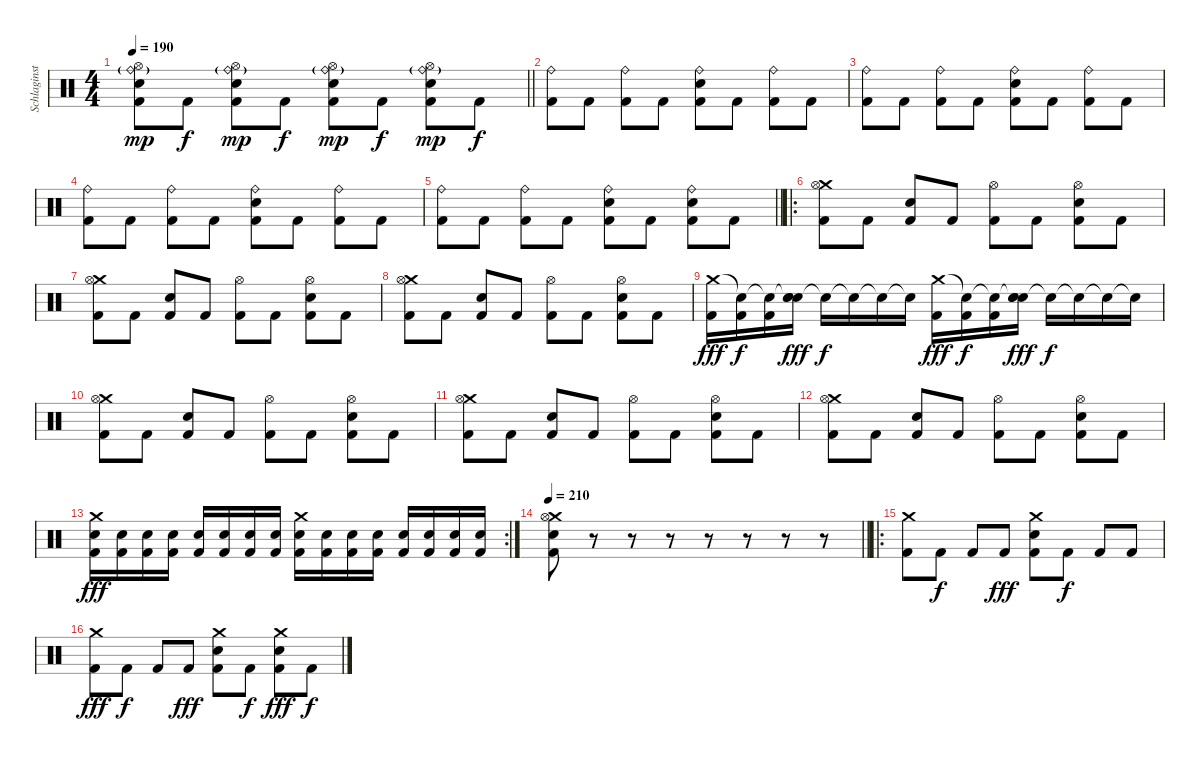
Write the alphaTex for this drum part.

\track ("Schlaginstrumente - Auswahl" "Schlaginst") {instrument percussion}
\staff {score}
\articulation defaults
\ts (4 4)
\tempo 190
\clef neutral
\barLineRight lightlight
\ks c
("Hi-Hat (open)" "Ride (bell)"{g} "Snare (hit) 2" "Kick (hit) 2").8{dy mp} "Kick (hit) 2".8{dy f} ("Hi-Hat (open)" "Ride (bell)"{g} "Snare (hit) 2" "Kick (hit) 2").8{dy mp} "Kick (hit) 2".8{dy f} ("Hi-Hat (open)" "Ride (bell)"{g} "Snare (hit) 2" "Kick (hit) 2").8{dy mp} "Kick (hit) 2".8{dy f} ("Hi-Hat (open)" "Ride (bell)"{g} "Snare (hit) 2" "Kick (hit) 2").8{dy mp} "Kick (hit) 2".8{dy f} |
("Ride (bell)" "Kick (hit) 2").8 "Kick (hit) 2".8 ("Ride (bell)" "Kick (hit) 2").8 "Kick (hit) 2".8 ("Ride (bell)" "Snare (hit) 2" "Kick (hit) 2").8 "Kick (hit) 2".8 ("Ride (bell)" "Kick (hit) 2").8 "Kick (hit) 2".8 |
("Ride (bell)" "Kick (hit) 2").8 "Kick (hit) 2".8 ("Ride (bell)" "Kick (hit) 2").8 "Kick (hit) 2".8 ("Ride (bell)" "Snare (hit) 2" "Kick (hit) 2").8 "Kick (hit) 2".8 ("Ride (bell)" "Kick (hit) 2").8 "Kick (hit) 2".8 |
("Ride (bell)" "Kick (hit) 2").8 "Kick (hit) 2".8 ("Ride (bell)" "Kick (hit) 2").8 "Kick (hit) 2".8 ("Ride (bell)" "Snare (hit) 2" "Kick (hit) 2").8 "Kick (hit) 2".8 ("Ride (bell)" "Kick (hit) 2").8 "Kick (hit) 2".8 |
\barLineRight lightlight
("Ride (bell)" "Kick (hit) 2").8 "Kick (hit) 2".8 ("Ride (bell)" "Kick (hit) 2").8 "Kick (hit) 2".8 ("Ride (bell)" "Snare (hit) 2" "Kick (hit) 2").8 "Kick (hit) 2".8 ("Ride (bell)" "Snare (hit) 2" "Kick (hit) 2").8 "Kick (hit) 2".8 |
\ro
("Crash medium (hit)" "Kick (hit) 2" "Hi-Hat (open)").8 "Kick (hit) 2".8 ("Kick (hit) 2" "Snare (hit) 2").8 "Kick (hit) 2".8 ("Kick (hit) 2" "Hi-Hat (open)").8 "Kick (hit) 2".8 ("Kick (hit) 2" "Snare (hit) 2" "Hi-Hat (open)").8 "Kick (hit) 2".8 |
("Crash medium (hit)" "Kick (hit) 2" "Hi-Hat (open)").8 "Kick (hit) 2".8 ("Kick (hit) 2" "Snare (hit) 2").8 "Kick (hit) 2".8 ("Kick (hit) 2" "Hi-Hat (open)").8 "Kick (hit) 2".8 ("Kick (hit) 2" "Snare (hit) 2" "Hi-Hat (open)").8 "Kick (hit) 2".8 |
("Crash medium (hit)" "Kick (hit) 2" "Hi-Hat (open)").8 "Kick (hit) 2".8 ("Kick (hit) 2" "Snare (hit) 2").8 "Kick (hit) 2".8 ("Kick (hit) 2" "Hi-Hat (open)").8 "Kick (hit) 2".8 ("Kick (hit) 2" "Snare (hit) 2" "Hi-Hat (open)").8 "Kick (hit) 2".8 |
("Crash medium (hit)" "Kick (hit) 2").16{dy fff} ("Snare (hit)"{t} "Kick (hit) 2").16{dy f} ("Snare (hit)"{t} "Kick (hit) 2").16 ("Snare (hit)"{t} "Snare (hit) 2" "Snare (hit) 2").16{dy fff} "Snare (hit)"{t}.16{dy f} "Snare (hit)"{t}.16 "Snare (hit)"{t}.16 "Snare (hit)"{t}.16 ("Crash medium (hit)" "Kick (hit) 2").16{dy fff} ("Snare (hit)"{t} "Kick (hit) 2").16{dy f} ("Snare (hit)"{t} "Kick (hit) 2").16 ("Snare (hit)"{t} "Snare (hit) 2" "Snare (hit) 2").16{dy fff} "Snare (hit)"{t}.16{dy f} "Snare (hit)"{t}.16 "Snare (hit)"{t}.16 "Snare (hit)"{t}.16 |
("Crash medium (hit)" "Kick (hit) 2" "Hi-Hat (open)").8 "Kick (hit) 2".8 ("Kick (hit) 2" "Snare (hit) 2").8 "Kick (hit) 2".8 ("Kick (hit) 2" "Hi-Hat (open)").8 "Kick (hit) 2".8 ("Kick (hit) 2" "Snare (hit) 2" "Hi-Hat (open)").8 "Kick (hit) 2".8 |
("Crash medium (hit)" "Kick (hit) 2" "Hi-Hat (open)").8 "Kick (hit) 2".8 ("Kick (hit) 2" "Snare (hit) 2").8 "Kick (hit) 2".8 ("Kick (hit) 2" "Hi-Hat (open)").8 "Kick (hit) 2".8 ("Kick (hit) 2" "Snare (hit) 2" "Hi-Hat (open)").8 "Kick (hit) 2".8 |
("Crash medium (hit)" "Kick (hit) 2" "Hi-Hat (open)").8 "Kick (hit) 2".8 ("Kick (hit) 2" "Snare (hit) 2").8 "Kick (hit) 2".8 ("Kick (hit) 2" "Hi-Hat (open)").8 "Kick (hit) 2".8 ("Kick (hit) 2" "Snare (hit) 2" "Hi-Hat (open)").8 "Kick (hit) 2".8 |
\rc 2
("Crash medium (hit)" "Snare (hit) 2" "Kick (hit) 2").16{dy fff} ("Snare (hit) 2" "Kick (hit) 2").16 ("Snare (hit) 2" "Kick (hit) 2").16 ("Snare (hit) 2" "Kick (hit) 2").16 ("Snare (hit) 2" "Kick (hit) 2").16 ("Snare (hit) 2" "Kick (hit) 2").16 ("Snare (hit) 2" "Kick (hit) 2").16 ("Snare (hit) 2" "Kick (hit) 2").16 ("Crash medium (hit)" "Snare (hit) 2" "Kick (hit) 2").16 ("Snare (hit) 2" "Kick (hit) 2").16 ("Snare (hit) 2" "Kick (hit) 2").16 ("Snare (hit) 2" "Kick (hit) 2").16 ("Snare (hit) 2" "Kick (hit) 2").16 ("Snare (hit) 2" "Kick (hit) 2").16 ("Snare (hit) 2" "Kick (hit) 2").16 ("Snare (hit) 2" "Kick (hit) 2").16 |
\tempo 210
\barLineRight lightlight
("Crash medium (hit)" "Kick (hit) 2" "Snare (hit) 2" "Hi-Hat (open)").8 r.8 r.8 r.8 r.8 r.8 r.8 r.8 |
\ro
("Crash medium (hit)" "Kick (hit) 2").8 "Kick (hit) 2".8{dy f} "Kick (hit) 2".8 "Kick (hit) 2".8{dy fff} ("Crash medium (hit)" "Snare (hit) 2" "Kick (hit) 2").8 "Kick (hit) 2".8{dy f} "Kick (hit) 2".8 "Kick (hit) 2".8 |
("Crash medium (hit)" "Kick (hit) 2").8{dy fff} "Kick (hit) 2".8{dy f} "Kick (hit) 2".8 "Kick (hit) 2".8{dy fff} ("Crash medium (hit)" "Snare (hit) 2" "Kick (hit) 2").8 "Kick (hit) 2".8{dy f} ("Crash medium (hit)" "Snare (hit) 2" "Kick (hit) 2").8{dy fff} "Kick (hit) 2".8{dy f}
